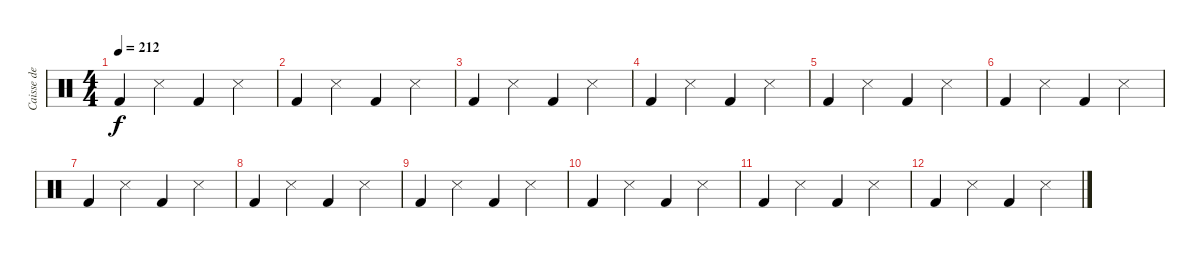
\track ("Caisse de guitare" "Caisse de ") {instrument percussion}
\staff {score}
\articulation defaults
\ts (4 4)
\tempo 212
\clef neutral
\ks c "Kick (hit) 2".4{dy f} "Metronome (hit)".4 "Kick (hit) 2".4 "Metronome (hit)".4
|
"Kick (hit) 2".4 "Metronome (hit)".4 "Kick (hit) 2".4 "Metronome (hit)".4 |
"Kick (hit) 2".4 "Metronome (hit)".4 "Kick (hit) 2".4 "Metronome (hit)".4 |
"Kick (hit) 2".4 "Metronome (hit)".4 "Kick (hit) 2".4 "Metronome (hit)".4 |
"Kick (hit) 2".4 "Metronome (hit)".4 "Kick (hit) 2".4 "Metronome (hit)".4 |
"Kick (hit) 2".4 "Metronome (hit)".4 "Kick (hit) 2".4 "Metronome (hit)".4 |
"Kick (hit) 2".4 "Metronome (hit)".4 "Kick (hit) 2".4 "Metronome (hit)".4 |
"Kick (hit) 2".4 "Metronome (hit)".4 "Kick (hit) 2".4 "Metronome (hit)".4 |
"Kick (hit) 2".4 "Metronome (hit)".4 "Kick (hit) 2".4 "Metronome (hit)".4 |
"Kick (hit) 2".4 "Metronome (hit)".4 "Kick (hit) 2".4 "Metronome (hit)".4 |
"Kick (hit) 2".4 "Metronome (hit)".4 "Kick (hit) 2".4 "Metronome (hit)".4 |
"Kick (hit) 2".4 "Metronome (hit)".4 "Kick (hit) 2".4 "Metronome (hit)".4
